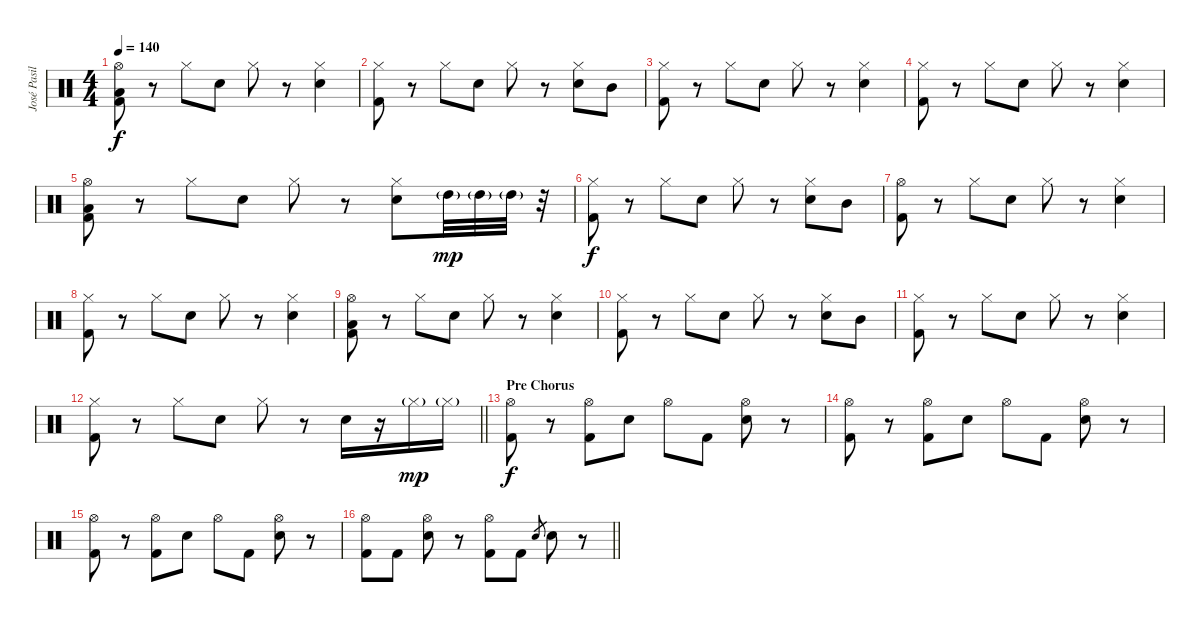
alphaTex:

\track ("José Pasillas [Drums]" "José Pasil") {instrument percussion}
\staff {score}
\articulation defaults
\ts (4 4)
\tempo 140
\clef neutral
\ks c
("Kick (hit) 2" "Low Tom (hit)" "Hi-Hat (open)").8{dy f} r.8 "Hi-Hat (closed)".8 "Electric Snare (hit)".8 "Hi-Hat (closed)".8 r.8 ("Electric Snare (hit)" "Hi-Hat (closed)").4 |
("Kick (hit) 2" "Hi-Hat (closed)").8 r.8 "Hi-Hat (closed)".8 "Electric Snare (hit)".8 "Hi-Hat (closed)".8 r.8 ("Electric Snare (hit)" "Hi-Hat (closed)").8 "Mid Tom (hit)".8 |
("Kick (hit) 2" "Hi-Hat (closed)").8 r.8 "Hi-Hat (closed)".8 "Electric Snare (hit)".8 "Hi-Hat (closed)".8 r.8 ("Electric Snare (hit)" "Hi-Hat (closed)").4 |
("Kick (hit) 2" "Hi-Hat (closed)").8 r.8 "Hi-Hat (closed)".8 "Electric Snare (hit)".8 "Hi-Hat (closed)".8 r.8 ("Electric Snare (hit)" "Hi-Hat (closed)").4 |
("Kick (hit) 2" "Low Tom (hit)" "Hi-Hat (open)").8 r.8 "Hi-Hat (closed)".8 "Electric Snare (hit)".8 "Hi-Hat (closed)".8 r.8 ("Electric Snare (hit)" "Hi-Hat (closed)").8 "High Tom (hit)"{g}.32{dy mp} "High Tom (hit)"{g}.32 "High Tom (hit)"{g}.32 r.32 |
("Kick (hit) 2" "Hi-Hat (closed)").8{dy f} r.8 "Hi-Hat (closed)".8 "Electric Snare (hit)".8 "Hi-Hat (closed)".8 r.8 ("Electric Snare (hit)" "Hi-Hat (closed)").8 "Mid Tom (hit)".8 |
("Kick (hit) 2" "Hi-Hat (open)").8 r.8 "Hi-Hat (closed)".8 "Electric Snare (hit)".8 "Hi-Hat (closed)".8 r.8 ("Electric Snare (hit)" "Hi-Hat (closed)").4 |
("Kick (hit) 2" "Hi-Hat (closed)").8 r.8 "Hi-Hat (closed)".8 "Electric Snare (hit)".8 "Hi-Hat (closed)".8 r.8 ("Electric Snare (hit)" "Hi-Hat (closed)").4 |
("Kick (hit) 2" "Low Tom (hit)" "Hi-Hat (open)").8 r.8 "Hi-Hat (closed)".8 "Electric Snare (hit)".8 "Hi-Hat (closed)".8 r.8 ("Electric Snare (hit)" "Hi-Hat (closed)").4 |
("Kick (hit) 2" "Hi-Hat (closed)").8 r.8 "Hi-Hat (closed)".8 "Electric Snare (hit)".8 "Hi-Hat (closed)".8 r.8 ("Electric Snare (hit)" "Hi-Hat (closed)").8 "Mid Tom (hit)".8 |
("Kick (hit) 2" "Hi-Hat (closed)").8 r.8 "Hi-Hat (closed)".8 "Electric Snare (hit)".8 "Hi-Hat (closed)".8 r.8 ("Electric Snare (hit)" "Hi-Hat (closed)").4 |
\barLineRight lightlight
("Kick (hit) 2" "Hi-Hat (closed)").8 r.8 "Hi-Hat (closed)".8 "Electric Snare (hit)".8 "Hi-Hat (closed)".8 r.8 "Electric Snare (hit)".16 r.16 "Hi-Hat (closed)"{g}.16{dy mp} "Hi-Hat (closed)"{g}.16 |
\section ("" "Pre Chorus")
("Kick (hit) 2" "Hi-Hat (open)").8{dy f} r.8 ("Kick (hit) 2" "Hi-Hat (open)").8 "Electric Snare (hit)".8 "Hi-Hat (open)".8 "Kick (hit) 2".8 ("Electric Snare (hit)" "Hi-Hat (open)").8 r.8 |
("Kick (hit) 2" "Hi-Hat (open)").8 r.8 ("Kick (hit) 2" "Hi-Hat (open)").8 "Electric Snare (hit)".8 "Hi-Hat (open)".8 "Kick (hit) 2".8 ("Electric Snare (hit)" "Hi-Hat (open)").8 r.8 |
("Kick (hit) 2" "Hi-Hat (open)").8 r.8 ("Kick (hit) 2" "Hi-Hat (open)").8 "Electric Snare (hit)".8 "Hi-Hat (open)".8 "Kick (hit) 2".8 ("Electric Snare (hit)" "Hi-Hat (open)").8 r.8 |
\barLineRight lightlight
("Kick (hit) 2" "Hi-Hat (open)").8 "Kick (hit) 2".8 ("Electric Snare (hit)" "Hi-Hat (open)").8 r.8 ("Kick (hit) 2" "Hi-Hat (open)").8 "Kick (hit) 2".8 "Electric Snare (hit)".8{gr} "Electric Snare (hit)".8 r.8
